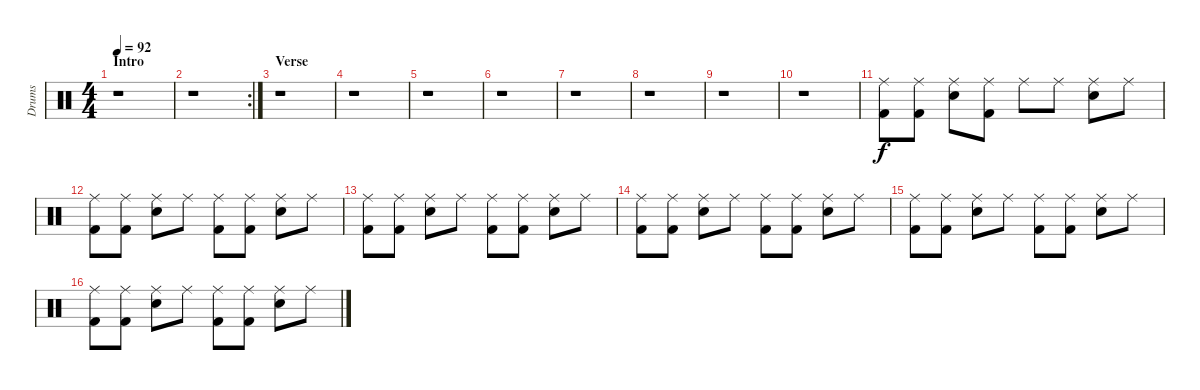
\track ("Drums" "Drums") {instrument percussion}
\staff {score}
\articulation defaults
\ts (4 4)
\section ("" "Intro")
\tempo 92
\clef neutral
\ks c
r.1{dy f} |
\rc 2
r.1 |
\section ("" "Verse")
r.1 |
r.1 |
r.1 |
r.1 |
r.1 |
r.1 |
r.1 |
r.1 |
("Ride (middle)" "Kick (hit) 2").8 ("Ride (middle)" "Kick (hit) 2").8 ("Ride (middle)" "Snare (hit) 2").8 ("Ride (middle)" "Kick (hit) 2").8 "Ride (middle)".8 "Ride (middle)".8 ("Ride (middle)" "Snare (hit) 2").8 "Ride (middle)".8 |
("Ride (middle)" "Kick (hit) 2").8 ("Ride (middle)" "Kick (hit) 2").8 ("Ride (middle)" "Snare (hit) 2").8 "Ride (middle)".8 ("Ride (middle)" "Kick (hit) 2").8 ("Ride (middle)" "Kick (hit) 2").8 ("Ride (middle)" "Snare (hit) 2").8 "Ride (middle)".8 |
("Ride (middle)" "Kick (hit) 2").8 ("Ride (middle)" "Kick (hit) 2").8 ("Ride (middle)" "Snare (hit) 2").8 "Ride (middle)".8 ("Ride (middle)" "Kick (hit) 2").8 ("Ride (middle)" "Kick (hit) 2").8 ("Ride (middle)" "Snare (hit) 2").8 "Ride (middle)".8 |
("Ride (middle)" "Kick (hit) 2").8 ("Ride (middle)" "Kick (hit) 2").8 ("Ride (middle)" "Snare (hit) 2").8 "Ride (middle)".8 ("Ride (middle)" "Kick (hit) 2").8 ("Ride (middle)" "Kick (hit) 2").8 ("Ride (middle)" "Snare (hit) 2").8 "Ride (middle)".8 |
("Ride (middle)" "Kick (hit) 2").8 ("Ride (middle)" "Kick (hit) 2").8 ("Ride (middle)" "Snare (hit) 2").8 "Ride (middle)".8 ("Ride (middle)" "Kick (hit) 2").8 ("Ride (middle)" "Kick (hit) 2").8 ("Ride (middle)" "Snare (hit) 2").8 "Ride (middle)".8 |
("Ride (middle)" "Kick (hit) 2").8 ("Ride (middle)" "Kick (hit) 2").8 ("Ride (middle)" "Snare (hit) 2").8 "Ride (middle)".8 ("Ride (middle)" "Kick (hit) 2").8 ("Ride (middle)" "Kick (hit) 2").8 ("Ride (middle)" "Snare (hit) 2").8 "Ride (middle)".8
